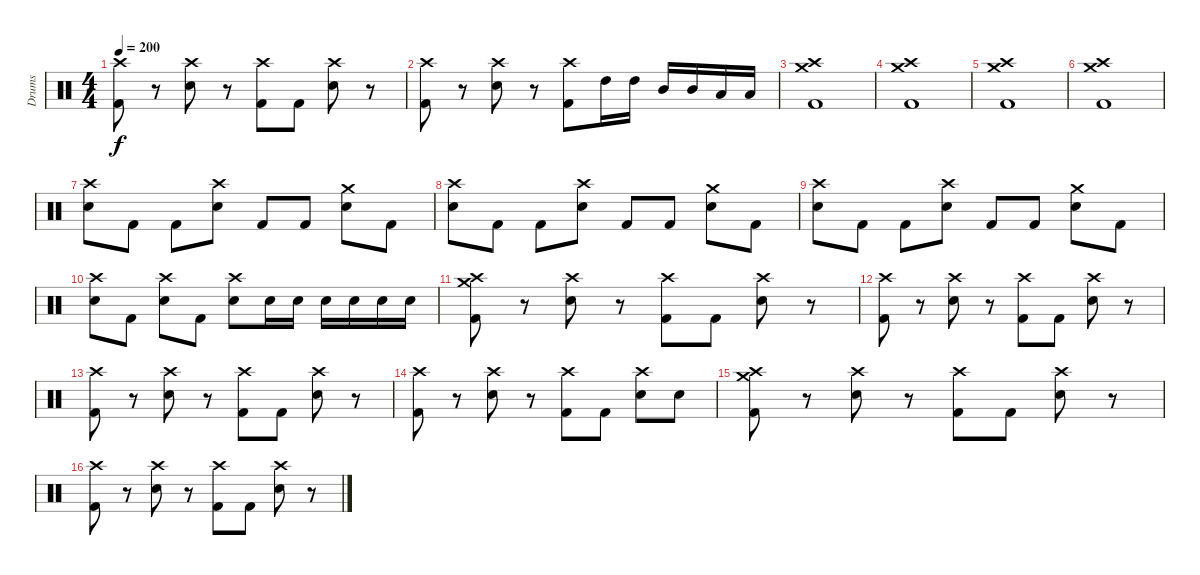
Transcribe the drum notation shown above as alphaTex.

\track ("Drums" "Drums") {instrument percussion}
\staff {score}
\articulation defaults
\ts (4 4)
\tempo 200
\clef neutral
\ks c
("Crash high (hit)" "Kick (hit) 2").8{dy f} r.8 ("Crash high (hit)" "Snare (hit) 2").8 r.8 ("Crash high (hit)" "Kick (hit) 2").8 "Kick (hit) 2".8 ("Crash high (hit)" "Snare (hit) 2").8 r.8 |
("Crash high (hit)" "Kick (hit) 2").8 r.8 ("Crash high (hit)" "Snare (hit) 2").8 r.8 ("Crash high (hit)" "Kick (hit) 2").8 "High Tom (hit)".16 "High Tom (hit)".16 "Mid Tom (hit)".16 "Mid Tom (hit)".16 "Low Tom (hit)".16 "Low Tom (hit)".16 |
("Crash high (hit)" "Crash medium (hit)" "Kick (hit) 2").1 |
("Crash high (hit)" "Crash medium (hit)" "Kick (hit) 2").1 |
("Crash high (hit)" "Crash medium (hit)" "Kick (hit) 2").1 |
("Crash high (hit)" "Crash medium (hit)" "Kick (hit) 2").1 |
("Crash high (hit)" "Snare (hit) 2").8 "Kick (hit) 2".8 "Kick (hit) 2".8 ("Crash high (hit)" "Snare (hit) 2").8 "Kick (hit) 2".8 "Kick (hit) 2".8 ("Crash medium (hit)" "Snare (hit) 2").8 "Kick (hit) 2".8 |
("Crash high (hit)" "Snare (hit) 2").8 "Kick (hit) 2".8 "Kick (hit) 2".8 ("Crash high (hit)" "Snare (hit) 2").8 "Kick (hit) 2".8 "Kick (hit) 2".8 ("Crash medium (hit)" "Snare (hit) 2").8 "Kick (hit) 2".8 |
("Crash high (hit)" "Snare (hit) 2").8 "Kick (hit) 2".8 "Kick (hit) 2".8 ("Crash high (hit)" "Snare (hit) 2").8 "Kick (hit) 2".8 "Kick (hit) 2".8 ("Crash medium (hit)" "Snare (hit) 2").8 "Kick (hit) 2".8 |
("Crash high (hit)" "Snare (hit) 2").8 "Kick (hit) 2".8 ("Crash high (hit)" "Snare (hit) 2").8 "Kick (hit) 2".8 ("Crash high (hit)" "Snare (hit) 2").8 "Snare (hit) 2".16 "Snare (hit) 2".16 "Snare (hit) 2".16 "Snare (hit) 2".16 "Snare (hit) 2".16 "Snare (hit) 2".16 |
("Crash high (hit)" "Crash medium (hit)" "Kick (hit) 2").8 r.8 ("Crash high (hit)" "Snare (hit) 2").8 r.8 ("Crash high (hit)" "Kick (hit) 2").8 "Kick (hit) 2".8 ("Crash high (hit)" "Snare (hit) 2").8 r.8 |
("Crash high (hit)" "Kick (hit) 2").8 r.8 ("Crash high (hit)" "Snare (hit) 2").8 r.8 ("Crash high (hit)" "Kick (hit) 2").8 "Kick (hit) 2".8 ("Crash high (hit)" "Snare (hit) 2").8 r.8 |
("Crash high (hit)" "Kick (hit) 2").8 r.8 ("Crash high (hit)" "Snare (hit) 2").8 r.8 ("Crash high (hit)" "Kick (hit) 2").8 "Kick (hit) 2".8 ("Crash high (hit)" "Snare (hit) 2").8 r.8 |
("Crash high (hit)" "Kick (hit) 2").8 r.8 ("Crash high (hit)" "Snare (hit) 2").8 r.8 ("Crash high (hit)" "Kick (hit) 2").8 "Kick (hit) 2".8 ("Crash high (hit)" "Snare (hit) 2").8 "Snare (hit) 2".8 |
("Crash high (hit)" "Crash medium (hit)" "Kick (hit) 2").8 r.8 ("Crash high (hit)" "Snare (hit) 2").8 r.8 ("Crash high (hit)" "Kick (hit) 2").8 "Kick (hit) 2".8 ("Crash high (hit)" "Snare (hit) 2").8 r.8 |
("Crash high (hit)" "Kick (hit) 2").8 r.8 ("Crash high (hit)" "Snare (hit) 2").8 r.8 ("Crash high (hit)" "Kick (hit) 2").8 "Kick (hit) 2".8 ("Crash high (hit)" "Snare (hit) 2").8 r.8
